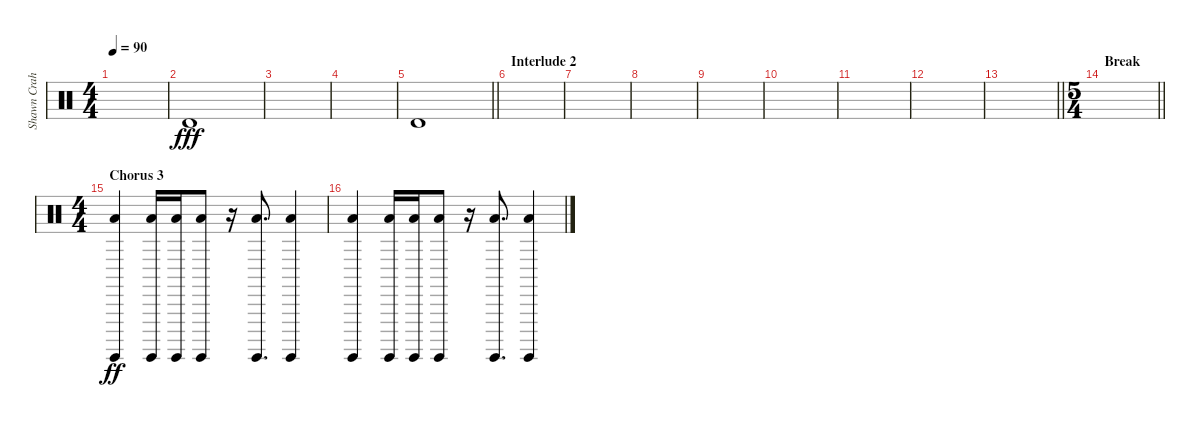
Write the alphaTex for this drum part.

\track ("Shawn Crahan" "Shawn Crah") {instrument percussion}
\staff {score}
\articulation defaults
\ts (4 4)
\tempo 90
\clef neutral
\ks c
|
"Timbale high (hit)".1{dy fff} |
|
|
\barLineRight lightlight "Timbale high (hit)".1
|
\section ("" "Interlude 2")
|
|
|
|
|
|
|
\barLineRight lightlight
|
\ts (5 4)
\section ("" "Break")
\barLineRight lightlight
|
\ts (4 4)
\section ("" "Chorus 3")
("Surdo (hit)" "Low Floor Tom (hit)").4{dy ff} ("Surdo (hit)" "Low Floor Tom (hit)").16 ("Surdo (hit)" "Low Floor Tom (hit)").16 ("Surdo (hit)" "Low Floor Tom (hit)").8 r.16 ("Surdo (hit)" "Low Floor Tom (hit)").8{d} ("Surdo (hit)" "Low Floor Tom (hit)").4 |
("Surdo (hit)" "Low Floor Tom (hit)").4 ("Surdo (hit)" "Low Floor Tom (hit)").16 ("Surdo (hit)" "Low Floor Tom (hit)").16 ("Surdo (hit)" "Low Floor Tom (hit)").8 r.16 ("Surdo (hit)" "Low Floor Tom (hit)").8{d} ("Surdo (hit)" "Low Floor Tom (hit)").4
